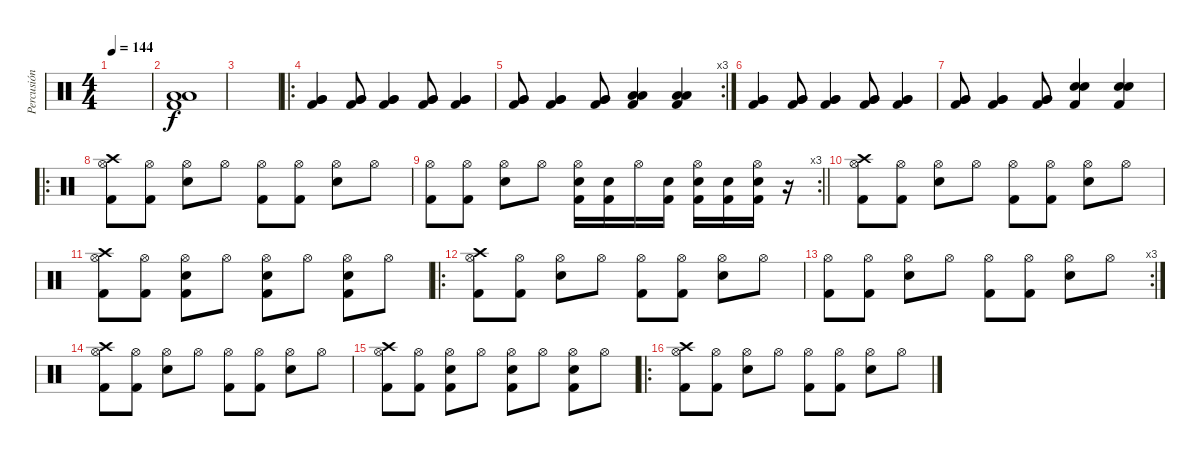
\track ("Percusión" "Percusión") {instrument percussion}
\staff {score}
\articulation defaults
\ts (4 4)
\tempo 144
\clef neutral
\ks c
|
("Kick (hit) 2" "Low Tom (hit)" "Low Tom (hit)").1 |
|
\ro
("Kick (hit) 2" "Very Low Tom (hit)" "Very Low Tom (hit)").4 ("Kick (hit) 2" "Very Low Tom (hit)" "Very Low Tom (hit)").8 ("Kick (hit) 2" "Very Low Tom (hit)" "Very Low Tom (hit)").4 ("Kick (hit) 2" "Very Low Tom (hit)" "Very Low Tom (hit)").8 ("Kick (hit) 2" "Very Low Tom (hit)" "Very Low Tom (hit)").4 |
\rc 3
("Kick (hit) 2" "Very Low Tom (hit)" "Very Low Tom (hit)").8 ("Kick (hit) 2" "Very Low Tom (hit)" "Very Low Tom (hit)").4 ("Kick (hit) 2" "Very Low Tom (hit)" "Very Low Tom (hit)").8 ("Kick (hit) 2" "Low Tom (hit)" "Low Tom (hit)").4 ("Kick (hit) 2" "Low Tom (hit)" "Low Tom (hit)").4 |
("Kick (hit) 2" "Very Low Tom (hit)" "Very Low Tom (hit)").4 ("Kick (hit) 2" "Very Low Tom (hit)" "Very Low Tom (hit)").8 ("Kick (hit) 2" "Very Low Tom (hit)" "Very Low Tom (hit)").4 ("Kick (hit) 2" "Very Low Tom (hit)" "Very Low Tom (hit)").8 ("Kick (hit) 2" "Very Low Tom (hit)" "Very Low Tom (hit)").4 |
("Kick (hit) 2" "Very Low Tom (hit)" "Very Low Tom (hit)").8 ("Kick (hit) 2" "Very Low Tom (hit)" "Very Low Tom (hit)").4 ("Kick (hit) 2" "Very Low Tom (hit)" "Very Low Tom (hit)").8 ("Kick (hit) 2" "Electric Snare (hit)" "Electric Snare (hit)").4 ("Kick (hit) 2" "Electric Snare (hit)" "Electric Snare (hit)").4 |
\ro
("Kick (hit) 2" "Hi-Hat (open)" "Crash high (hit)").8 ("Kick (hit) 2" "Hi-Hat (open)").8 ("Hi-Hat (open)" "Electric Snare (hit)").8 "Hi-Hat (open)".8 ("Kick (hit) 2" "Hi-Hat (open)").8 ("Kick (hit) 2" "Hi-Hat (open)").8 ("Hi-Hat (open)" "Electric Snare (hit)").8 "Hi-Hat (open)".8 |
\rc 3
\barLineRight lightlight
("Kick (hit) 2" "Hi-Hat (open)").8 ("Kick (hit) 2" "Hi-Hat (open)").8 ("Hi-Hat (open)" "Electric Snare (hit)").8 "Hi-Hat (open)".8 ("Kick (hit) 2" "Hi-Hat (open)" "Electric Snare (hit)").16 ("Kick (hit) 2" "Electric Snare (hit)").16 "Hi-Hat (open)".16 ("Kick (hit) 2" "Electric Snare (hit)").16 ("Kick (hit) 2" "Hi-Hat (open)" "Electric Snare (hit)").16 ("Kick (hit) 2" "Electric Snare (hit)").16 ("Kick (hit) 2" "Hi-Hat (open)" "Electric Snare (hit)").16 r.16 |
("Kick (hit) 2" "Hi-Hat (open)" "Crash high (hit)").8 ("Kick (hit) 2" "Hi-Hat (open)").8 ("Hi-Hat (open)" "Electric Snare (hit)").8 "Hi-Hat (open)".8 ("Kick (hit) 2" "Hi-Hat (open)").8 ("Kick (hit) 2" "Hi-Hat (open)").8 ("Hi-Hat (open)" "Electric Snare (hit)").8 "Hi-Hat (open)".8 |
("Kick (hit) 2" "Hi-Hat (open)" "Crash high (hit)").8 ("Kick (hit) 2" "Hi-Hat (open)").8 ("Kick (hit) 2" "Hi-Hat (open)" "Electric Snare (hit)").8 "Hi-Hat (open)".8 ("Kick (hit) 2" "Hi-Hat (open)" "Electric Snare (hit)").8 "Hi-Hat (open)".8 ("Kick (hit) 2" "Hi-Hat (open)" "Electric Snare (hit)").8 "Hi-Hat (open)".8 |
\ro
("Kick (hit) 2" "Hi-Hat (open)" "Crash high (hit)").8 ("Kick (hit) 2" "Hi-Hat (open)").8 ("Hi-Hat (open)" "Electric Snare (hit)").8 "Hi-Hat (open)".8 ("Kick (hit) 2" "Hi-Hat (open)").8 ("Kick (hit) 2" "Hi-Hat (open)").8 ("Hi-Hat (open)" "Electric Snare (hit)").8 "Hi-Hat (open)".8 |
\rc 3
("Kick (hit) 2" "Hi-Hat (open)").8 ("Kick (hit) 2" "Hi-Hat (open)").8 ("Hi-Hat (open)" "Electric Snare (hit)").8 "Hi-Hat (open)".8 ("Kick (hit) 2" "Hi-Hat (open)").8 ("Kick (hit) 2" "Hi-Hat (open)").8 ("Hi-Hat (open)" "Electric Snare (hit)").8 "Hi-Hat (open)".8 |
("Kick (hit) 2" "Hi-Hat (open)" "Crash high (hit)").8 ("Kick (hit) 2" "Hi-Hat (open)").8 ("Hi-Hat (open)" "Electric Snare (hit)").8 "Hi-Hat (open)".8 ("Kick (hit) 2" "Hi-Hat (open)").8 ("Kick (hit) 2" "Hi-Hat (open)").8 ("Hi-Hat (open)" "Electric Snare (hit)").8 "Hi-Hat (open)".8 |
("Kick (hit) 2" "Hi-Hat (open)" "Crash high (hit)").8 ("Kick (hit) 2" "Hi-Hat (open)").8 ("Kick (hit) 2" "Hi-Hat (open)" "Electric Snare (hit)").8 "Hi-Hat (open)".8 ("Kick (hit) 2" "Hi-Hat (open)" "Electric Snare (hit)").8 "Hi-Hat (open)".8 ("Kick (hit) 2" "Hi-Hat (open)" "Electric Snare (hit)").8 "Hi-Hat (open)".8 |
\ro
("Kick (hit) 2" "Hi-Hat (open)" "Crash high (hit)").8 ("Kick (hit) 2" "Hi-Hat (open)").8 ("Hi-Hat (open)" "Electric Snare (hit)").8 "Hi-Hat (open)".8 ("Kick (hit) 2" "Hi-Hat (open)").8 ("Kick (hit) 2" "Hi-Hat (open)").8 ("Hi-Hat (open)" "Electric Snare (hit)").8 "Hi-Hat (open)".8
